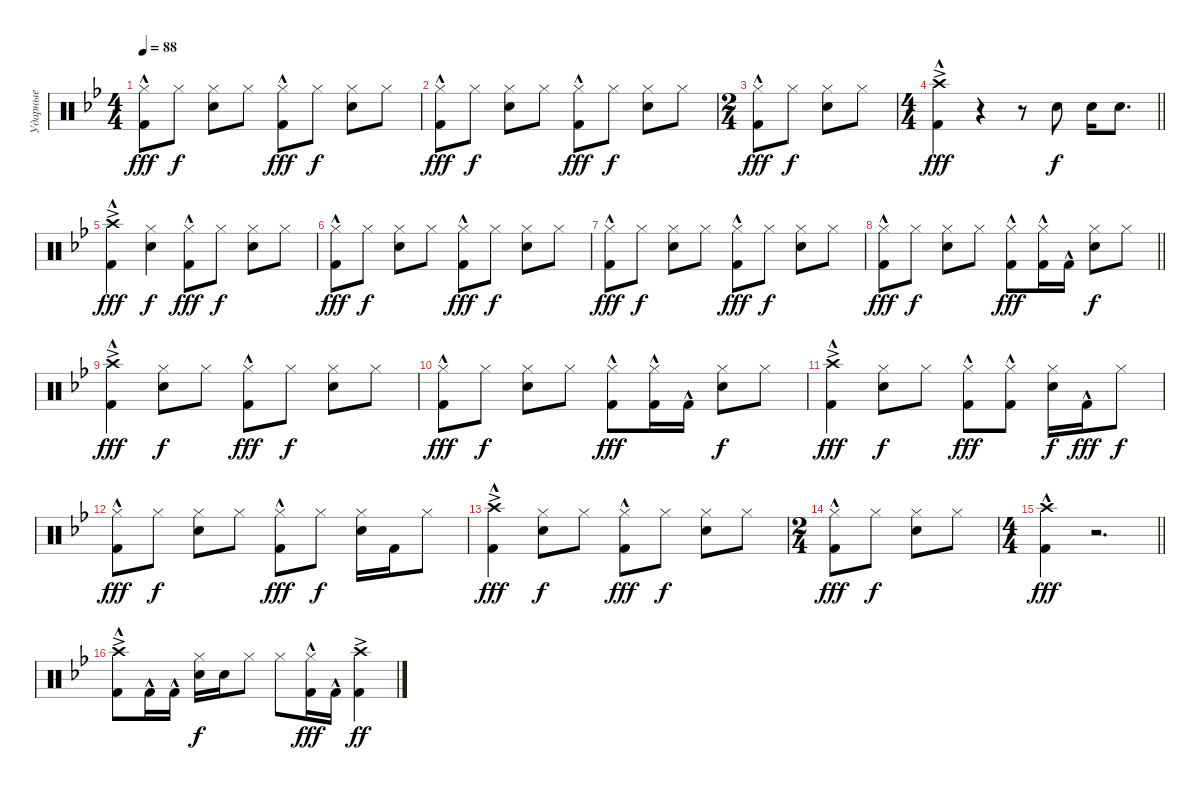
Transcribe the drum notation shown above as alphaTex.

\track ("Ударные" "Ударные") {instrument percussion}
\staff
\articulation defaults
\ts (4 4)
\tempo 88
\clef neutral
\ks bb
("Hi-Hat (closed)" "Kick (hit) 2"{hac}).8{dy fff} "Hi-Hat (closed)".8{dy f} ("Hi-Hat (closed)" "Snare (hit) 2").8 "Hi-Hat (closed)".8 ("Hi-Hat (closed)" "Kick (hit) 2"{hac}).8{dy fff} "Hi-Hat (closed)".8{dy f} ("Hi-Hat (closed)" "Snare (hit) 2").8 "Hi-Hat (closed)".8 |
("Hi-Hat (closed)" "Kick (hit) 2"{hac}).8{dy fff} "Hi-Hat (closed)".8{dy f} ("Hi-Hat (closed)" "Snare (hit) 2").8 "Hi-Hat (closed)".8 ("Hi-Hat (closed)" "Kick (hit) 2"{hac}).8{dy fff} "Hi-Hat (closed)".8{dy f} ("Hi-Hat (closed)" "Snare (hit) 2").8 "Hi-Hat (closed)".8 |
\ts (2 4)
("Hi-Hat (closed)" "Kick (hit) 2"{hac}).8{dy fff} "Hi-Hat (closed)".8{dy f} ("Hi-Hat (closed)" "Snare (hit) 2").8 "Hi-Hat (closed)".8 |
\ts (4 4)
\barLineRight lightlight
("Crash high (hit)"{ac} "Kick (hit) 2"{hac}).4{dy fff} r.4 r.8 "Snare (hit) 2".8{dy f} "Snare (hit) 2".16 "Snare (hit) 2".8{d} |
("Crash high (hit)"{ac} "Kick (hit) 2"{hac}).4{dy fff} ("Hi-Hat (closed)" "Snare (hit) 2").4{dy f} ("Hi-Hat (closed)" "Kick (hit) 2"{hac}).8{dy fff} "Hi-Hat (closed)".8{dy f} ("Hi-Hat (closed)" "Snare (hit) 2").8 "Hi-Hat (closed)".8 |
("Hi-Hat (closed)" "Kick (hit) 2"{hac}).8{dy fff} "Hi-Hat (closed)".8{dy f} ("Hi-Hat (closed)" "Snare (hit) 2").8 "Hi-Hat (closed)".8 ("Hi-Hat (closed)" "Kick (hit) 2"{hac}).8{dy fff} "Hi-Hat (closed)".8{dy f} ("Hi-Hat (closed)" "Snare (hit) 2").8 "Hi-Hat (closed)".8 |
("Hi-Hat (closed)" "Kick (hit) 2"{hac}).8{dy fff} "Hi-Hat (closed)".8{dy f} ("Hi-Hat (closed)" "Snare (hit) 2").8 "Hi-Hat (closed)".8 ("Hi-Hat (closed)" "Kick (hit) 2"{hac}).8{dy fff} "Hi-Hat (closed)".8{dy f} ("Hi-Hat (closed)" "Snare (hit) 2").8 "Hi-Hat (closed)".8 |
\barLineRight lightlight
("Hi-Hat (closed)" "Kick (hit) 2"{hac}).8{dy fff} "Hi-Hat (closed)".8{dy f} ("Hi-Hat (closed)" "Snare (hit) 2").8 "Hi-Hat (closed)".8 ("Hi-Hat (closed)" "Kick (hit) 2"{hac}).8{dy fff} ("Hi-Hat (closed)" "Kick (hit) 2"{hac}).16 "Kick (hit) 2"{hac}.16 ("Hi-Hat (closed)" "Snare (hit) 2").8{dy f} "Hi-Hat (closed)".8 |
("Crash high (hit)"{ac} "Kick (hit) 2"{hac}).4{dy fff} ("Hi-Hat (closed)" "Snare (hit) 2").8{dy f} "Hi-Hat (closed)".8 ("Hi-Hat (closed)" "Kick (hit) 2"{hac}).8{dy fff} "Hi-Hat (closed)".8{dy f} ("Hi-Hat (closed)" "Snare (hit) 2").8 "Hi-Hat (closed)".8 |
("Hi-Hat (closed)" "Kick (hit) 2"{hac}).8{dy fff} "Hi-Hat (closed)".8{dy f} ("Hi-Hat (closed)" "Snare (hit) 2").8 "Hi-Hat (closed)".8 ("Hi-Hat (closed)" "Kick (hit) 2"{hac}).8{dy fff} ("Hi-Hat (closed)" "Kick (hit) 2"{hac}).16 "Kick (hit) 2"{hac}.16 ("Hi-Hat (closed)" "Snare (hit) 2").8{dy f} "Hi-Hat (closed)".8 |
("Crash high (hit)"{ac} "Kick (hit) 2"{hac}).4{dy fff} ("Hi-Hat (closed)" "Snare (hit) 2").8{dy f} "Hi-Hat (closed)".8 ("Hi-Hat (closed)" "Kick (hit) 2"{hac}).8{dy fff} ("Hi-Hat (closed)" "Kick (hit) 2"{hac}).8 ("Hi-Hat (closed)" "Snare (hit) 2").16{dy f} "Kick (hit) 2"{hac}.16{dy fff} "Hi-Hat (closed)".8{dy f} |
("Hi-Hat (closed)" "Kick (hit) 2"{hac}).8{dy fff} "Hi-Hat (closed)".8{dy f} ("Hi-Hat (closed)" "Snare (hit) 2").8 "Hi-Hat (closed)".8 ("Hi-Hat (closed)" "Kick (hit) 2"{hac}).8{dy fff} "Hi-Hat (closed)".8{dy f} ("Hi-Hat (closed)" "Snare (hit) 2").16 "Kick (hit) 2".16 "Hi-Hat (closed)".8 |
("Crash high (hit)"{ac} "Kick (hit) 2"{hac}).4{dy fff} ("Hi-Hat (closed)" "Snare (hit) 2").8{dy f} "Hi-Hat (closed)".8 ("Hi-Hat (closed)" "Kick (hit) 2"{hac}).8{dy fff} "Hi-Hat (closed)".8{dy f} ("Hi-Hat (closed)" "Snare (hit) 2").8 "Hi-Hat (closed)".8 |
\ts (2 4)
("Hi-Hat (closed)" "Kick (hit) 2"{hac}).8{dy fff} "Hi-Hat (closed)".8{dy f} ("Hi-Hat (closed)" "Snare (hit) 2").8 "Hi-Hat (closed)".8 |
\ts (4 4)
\barLineRight lightlight
("Crash high (hit)"{hac} "Kick (hit) 2"{hac}).4{dy fff} r.2{d} |
("Crash high (hit)"{ac} "Kick (hit) 2"{hac}).8 "Kick (hit) 2"{hac}.16 "Kick (hit) 2"{hac}.16 ("Hi-Hat (closed)" "Snare (hit) 2").16{dy f} "Snare (hit) 2".16 "Hi-Hat (closed)".8 "Hi-Hat (closed)".8 ("Hi-Hat (closed)" "Kick (hit) 2"{hac}).16{dy fff} "Kick (hit) 2"{hac}.16 ("Crash high (hit)"{ac} "Kick (hit) 2").4{dy ff}
